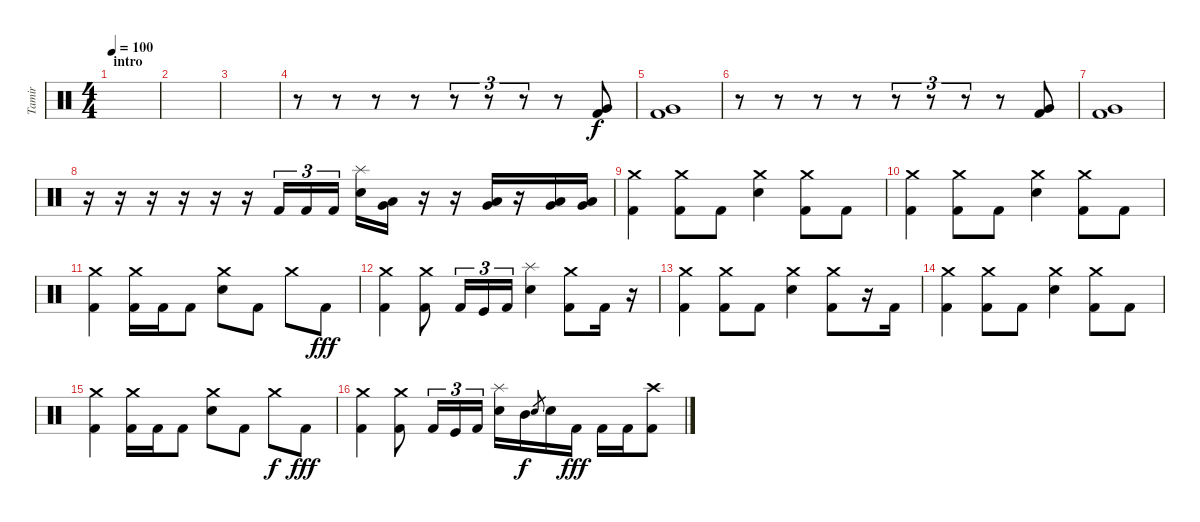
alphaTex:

\track ("Tamir" "Tamir") {instrument percussion}
\staff {score}
\articulation defaults
\ts (4 4)
\section ("" "intro")
\tempo 100
\clef neutral
\ks c
|
|
|
r.8 r.8 r.8 r.8 r.8{tu (3 2)} r.8{tu (3 2)} r.8{tu (3 2)} r.8 ("Very Low Tom (hit)" "Kick (hit) 2").8 |
("Very Low Tom (hit)" "Kick (hit) 2").1 |
r.8 r.8 r.8 r.8 r.8{tu (3 2)} r.8{tu (3 2)} r.8{tu (3 2)} r.8 ("Very Low Tom (hit)" "Kick (hit) 2").8 |
("Very Low Tom (hit)" "Kick (hit) 2").1 |
r.16 r.16 r.16 r.16 r.16 r.16 "Kick (hit) 2".16{tu (3 2)} "Kick (hit) 2".16{tu (3 2)} "Kick (hit) 2".16{tu (3 2)} ("Splash (hit)" "Electric Snare (hit)").16 ("Low Floor Tom (hit)" "Very Low Tom (hit)").16 r.16 r.16 ("Low Tom (hit)" "Very Low Tom (hit)").16 r.16 ("Low Tom (hit)" "Very Low Tom (hit)").16 ("Low Tom (hit)" "Very Low Tom (hit)").16 |
("Crash medium (hit)" "Kick (hit) 2").4 ("Crash medium (hit)" "Kick (hit) 2").8 "Kick (hit) 2".8 ("Crash medium (hit)" "Electric Snare (hit)").4 ("Crash medium (hit)" "Kick (hit) 2").8 "Kick (hit) 2".8 |
("Crash medium (hit)" "Kick (hit) 2").4 ("Crash medium (hit)" "Kick (hit) 2").8 "Kick (hit) 2".8 ("Crash medium (hit)" "Electric Snare (hit)").4 ("Crash medium (hit)" "Kick (hit) 2").8 "Kick (hit) 2".8 |
("Crash medium (hit)" "Kick (hit) 2").4 ("Crash medium (hit)" "Kick (hit) 2").16 "Kick (hit) 2".16 "Kick (hit) 2".8 ("Crash medium (hit)" "Electric Snare (hit)").8 "Kick (hit) 2".8 "Crash medium (hit)".8{dy f} "Kick (hit) 2".8{dy fff} |
("Crash medium (hit)" "Kick (hit) 2").4 ("Crash medium (hit)" "Kick (hit) 2").8 "Kick (hit) 2".16{tu (3 2)} "Kick (hit)".16{tu (3 2)} "Kick (hit) 2".16{tu (3 2)} ("Splash (hit)" "Electric Snare (hit)").4 ("Crash medium (hit)" "Kick (hit) 2").8 "Kick (hit) 2".16 r.16 |
("Crash medium (hit)" "Kick (hit) 2").4 ("Crash medium (hit)" "Kick (hit) 2").8 "Kick (hit) 2".8 ("Crash medium (hit)" "Electric Snare (hit)").4 ("Crash medium (hit)" "Kick (hit) 2").8 r.16 "Kick (hit) 2".16 |
("Crash medium (hit)" "Kick (hit) 2").4 ("Crash medium (hit)" "Kick (hit) 2").8 "Kick (hit) 2".8 ("Crash medium (hit)" "Electric Snare (hit)").4 ("Crash medium (hit)" "Kick (hit) 2").8 "Kick (hit) 2".8 |
("Crash medium (hit)" "Kick (hit) 2").4 ("Crash medium (hit)" "Kick (hit) 2").16 "Kick (hit) 2".16 "Kick (hit) 2".8 ("Crash medium (hit)" "Electric Snare (hit)").8 "Kick (hit) 2".8 "Crash medium (hit)".8{dy f} "Kick (hit) 2".8{dy fff} |
("Crash medium (hit)" "Kick (hit) 2").4 ("Crash medium (hit)" "Kick (hit) 2").8 "Kick (hit) 2".16{tu (3 2)} "Kick (hit)".16{tu (3 2)} "Kick (hit) 2".16{tu (3 2)} ("Splash (hit)" "Electric Snare (hit)").16 "Mid Tom (hit)".16{dy f} "Electric Snare (hit)".8{gr} "Electric Snare (hit)".16 "Kick (hit) 2".16{dy fff} "Kick (hit) 2".16 "Kick (hit) 2".16 ("Crash high (hit)" "Kick (hit) 2").8
